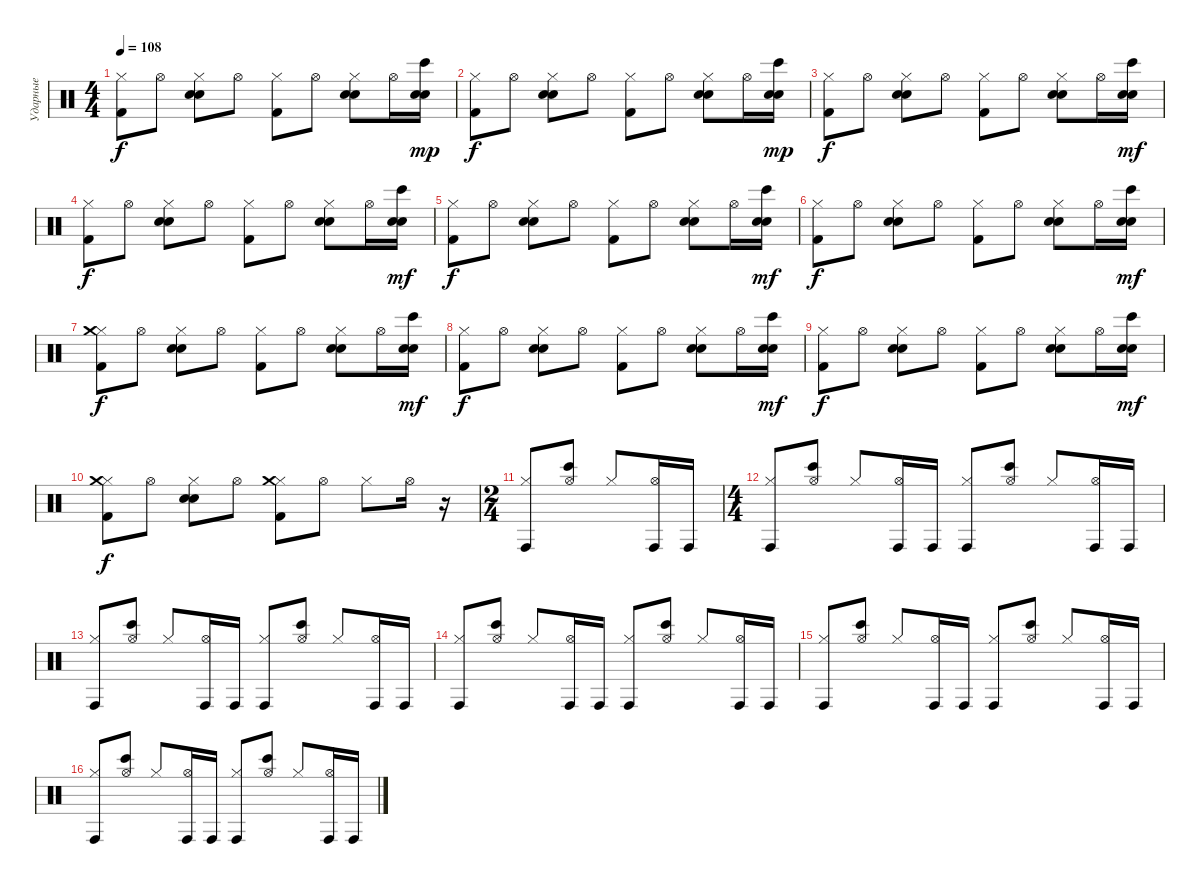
\track ("Ударные" "Ударные") {instrument percussion}
\staff {score}
\articulation defaults
\ts (4 4)
\tempo 108
\clef neutral
\ks c
("Hi-Hat (closed)" "Kick (hit) 2").8{dy f} "Hi-Hat (open)".8 ("Hi-Hat (closed)" "Electric Snare (hit)" "Hand Clap (hit)").8 "Hi-Hat (open)".8 ("Hi-Hat (closed)" "Kick (hit) 2").8 "Hi-Hat (open)".8 ("Hi-Hat (closed)" "Electric Snare (hit)" "Hand Clap (hit)").8 "Hi-Hat (open)".16 ("Bongo High (hit)" "Electric Snare (hit)" "Hand Clap (hit)").16{dy mp} |
("Hi-Hat (closed)" "Kick (hit) 2").8{dy f} "Hi-Hat (open)".8 ("Hi-Hat (closed)" "Electric Snare (hit)" "Hand Clap (hit)").8 "Hi-Hat (open)".8 ("Hi-Hat (closed)" "Kick (hit) 2").8 "Hi-Hat (open)".8 ("Hi-Hat (closed)" "Electric Snare (hit)" "Hand Clap (hit)").8 "Hi-Hat (open)".16 ("Bongo High (hit)" "Electric Snare (hit)" "Hand Clap (hit)").16{dy mp} |
("Hi-Hat (closed)" "Kick (hit) 2").8{dy f} "Hi-Hat (open)".8 ("Hi-Hat (closed)" "Electric Snare (hit)" "Hand Clap (hit)").8 "Hi-Hat (open)".8 ("Hi-Hat (closed)" "Kick (hit) 2").8 "Hi-Hat (open)".8 ("Hi-Hat (closed)" "Electric Snare (hit)" "Hand Clap (hit)").8 "Hi-Hat (open)".16 ("Bongo High (hit)" "Electric Snare (hit)" "Hand Clap (hit)").16{dy mf} |
("Hi-Hat (closed)" "Kick (hit) 2").8{dy f} "Hi-Hat (open)".8 ("Hi-Hat (closed)" "Electric Snare (hit)" "Hand Clap (hit)").8 "Hi-Hat (open)".8 ("Hi-Hat (closed)" "Kick (hit) 2").8 "Hi-Hat (open)".8 ("Hi-Hat (closed)" "Electric Snare (hit)" "Hand Clap (hit)").8 "Hi-Hat (open)".16 ("Bongo High (hit)" "Electric Snare (hit)" "Hand Clap (hit)").16{dy mf} |
("Hi-Hat (closed)" "Kick (hit) 2").8{dy f} "Hi-Hat (open)".8 ("Hi-Hat (closed)" "Electric Snare (hit)" "Hand Clap (hit)").8 "Hi-Hat (open)".8 ("Hi-Hat (closed)" "Kick (hit) 2").8 "Hi-Hat (open)".8 ("Hi-Hat (closed)" "Electric Snare (hit)" "Hand Clap (hit)").8 "Hi-Hat (open)".16 ("Bongo High (hit)" "Electric Snare (hit)" "Hand Clap (hit)").16{dy mf} |
("Hi-Hat (closed)" "Kick (hit) 2").8{dy f} "Hi-Hat (open)".8 ("Hi-Hat (closed)" "Electric Snare (hit)" "Hand Clap (hit)").8 "Hi-Hat (open)".8 ("Hi-Hat (closed)" "Kick (hit) 2").8 "Hi-Hat (open)".8 ("Hi-Hat (closed)" "Electric Snare (hit)" "Hand Clap (hit)").8 "Hi-Hat (open)".16 ("Bongo High (hit)" "Electric Snare (hit)" "Hand Clap (hit)").16{dy mf} |
("Hi-Hat (closed)" "Kick (hit) 2" "Crash medium (hit)").8{dy f} "Hi-Hat (open)".8 ("Hi-Hat (closed)" "Electric Snare (hit)" "Hand Clap (hit)").8 "Hi-Hat (open)".8 ("Hi-Hat (closed)" "Kick (hit) 2").8 "Hi-Hat (open)".8 ("Hi-Hat (closed)" "Electric Snare (hit)" "Hand Clap (hit)").8 "Hi-Hat (open)".16 ("Bongo High (hit)" "Electric Snare (hit)" "Hand Clap (hit)").16{dy mf} |
("Hi-Hat (closed)" "Kick (hit) 2").8{dy f} "Hi-Hat (open)".8 ("Hi-Hat (closed)" "Electric Snare (hit)" "Hand Clap (hit)").8 "Hi-Hat (open)".8 ("Hi-Hat (closed)" "Kick (hit) 2").8 "Hi-Hat (open)".8 ("Hi-Hat (closed)" "Electric Snare (hit)" "Hand Clap (hit)").8 "Hi-Hat (open)".16 ("Bongo High (hit)" "Electric Snare (hit)" "Hand Clap (hit)").16{dy mf} |
("Hi-Hat (closed)" "Kick (hit) 2").8{dy f} "Hi-Hat (open)".8 ("Hi-Hat (closed)" "Electric Snare (hit)" "Hand Clap (hit)").8 "Hi-Hat (open)".8 ("Hi-Hat (closed)" "Kick (hit) 2").8 "Hi-Hat (open)".8 ("Hi-Hat (closed)" "Electric Snare (hit)" "Hand Clap (hit)").8 "Hi-Hat (open)".16 ("Bongo High (hit)" "Electric Snare (hit)" "Hand Clap (hit)").16{dy mf} |
("Hi-Hat (closed)" "Kick (hit) 2" "Crash medium (hit)").8{dy f} "Hi-Hat (open)".8 ("Hi-Hat (closed)" "Electric Snare (hit)" "Hand Clap (hit)").8 "Hi-Hat (open)".8 ("Hi-Hat (closed)" "Kick (hit) 2" "Crash medium (hit)").8 "Hi-Hat (open)".8 "Hi-Hat (closed)".8 "Hi-Hat (open)".16 r.16 |
\ts (2 4)
("Hi-Hat (closed)" "Conga high (hit)").8 ("Hi-Hat (open)" "Bongo High (hit)").8 "Hi-Hat (closed)".8 ("Hi-Hat (open)" "Conga high (hit)").16 "Conga high (hit)".16 |
\ts (4 4)
("Hi-Hat (closed)" "Conga high (hit)").8 ("Hi-Hat (open)" "Bongo High (hit)").8 "Hi-Hat (closed)".8 ("Hi-Hat (open)" "Conga high (hit)").16 "Conga high (hit)".16 ("Conga high (hit)" "Hi-Hat (closed)").8 ("Bongo High (hit)" "Hi-Hat (open)").8 "Hi-Hat (closed)".8 ("Conga high (hit)" "Hi-Hat (open)").16 "Conga high (hit)".16 |
("Hi-Hat (closed)" "Conga high (hit)").8 ("Hi-Hat (open)" "Bongo High (hit)").8 "Hi-Hat (closed)".8 ("Hi-Hat (open)" "Conga high (hit)").16 "Conga high (hit)".16 ("Conga high (hit)" "Hi-Hat (closed)").8 ("Bongo High (hit)" "Hi-Hat (open)").8 "Hi-Hat (closed)".8 ("Conga high (hit)" "Hi-Hat (open)").16 "Conga high (hit)".16 |
("Hi-Hat (closed)" "Conga high (hit)").8 ("Hi-Hat (open)" "Bongo High (hit)").8 "Hi-Hat (closed)".8 ("Hi-Hat (open)" "Conga high (hit)").16 "Conga high (hit)".16 ("Conga high (hit)" "Hi-Hat (closed)").8 ("Bongo High (hit)" "Hi-Hat (open)").8 "Hi-Hat (closed)".8 ("Conga high (hit)" "Hi-Hat (open)").16 "Conga high (hit)".16 |
("Hi-Hat (closed)" "Conga high (hit)").8 ("Hi-Hat (open)" "Bongo High (hit)").8 "Hi-Hat (closed)".8 ("Hi-Hat (open)" "Conga high (hit)").16 "Conga high (hit)".16 ("Conga high (hit)" "Hi-Hat (closed)").8 ("Bongo High (hit)" "Hi-Hat (open)").8 "Hi-Hat (closed)".8 ("Conga high (hit)" "Hi-Hat (open)").16 "Conga high (hit)".16 |
("Hi-Hat (closed)" "Conga high (hit)").8 ("Hi-Hat (open)" "Bongo High (hit)").8 "Hi-Hat (closed)".8 ("Hi-Hat (open)" "Conga high (hit)").16 "Conga high (hit)".16 ("Conga high (hit)" "Hi-Hat (closed)").8 ("Bongo High (hit)" "Hi-Hat (open)").8 "Hi-Hat (closed)".8 ("Conga high (hit)" "Hi-Hat (open)").16 "Conga high (hit)".16
